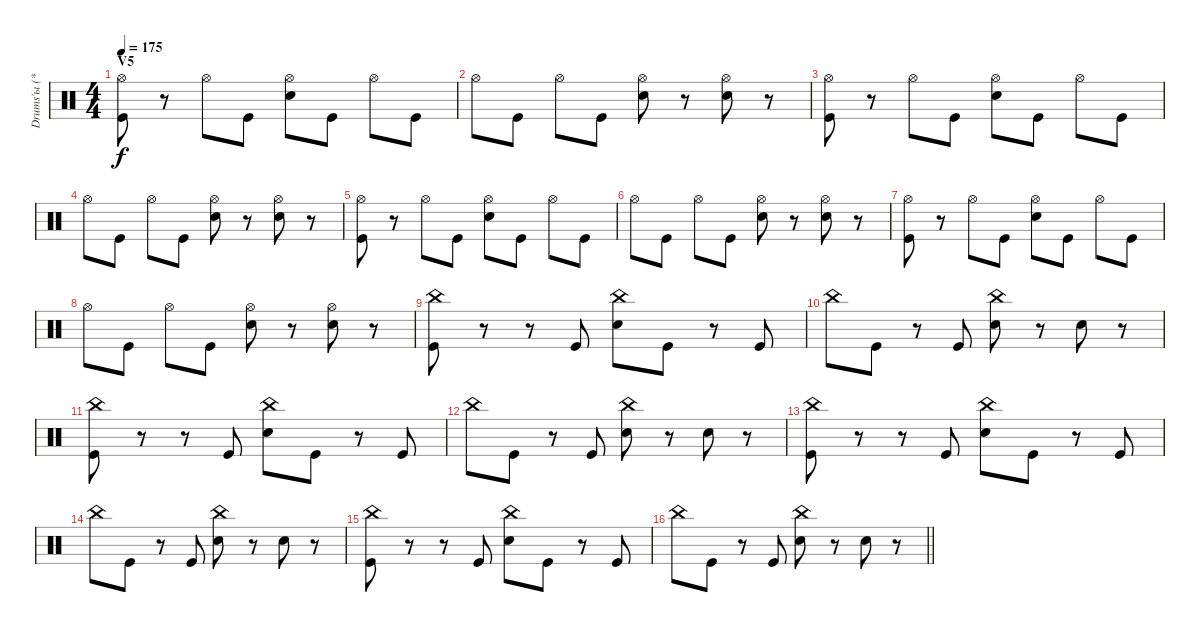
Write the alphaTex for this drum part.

\track ("Drums'ы (***)" "Drums'ы (*") {instrument percussion}
\staff {score}
\articulation defaults
\ts (4 4)
\section ("" "V5")
\tempo 175
\clef neutral
\ks c
("Hi-Hat (open)" "Kick (hit)").8{dy f} r.8 "Hi-Hat (open)".8 "Kick (hit)".8 ("Hi-Hat (open)" "Electric Snare (hit)").8 "Kick (hit)".8 "Hi-Hat (open)".8 "Kick (hit)".8 |
"Hi-Hat (open)".8 "Kick (hit)".8 "Hi-Hat (open)".8 "Kick (hit)".8 ("Hi-Hat (open)" "Electric Snare (hit)").8 r.8 ("Hi-Hat (open)" "Electric Snare (hit)").8 r.8 |
("Hi-Hat (open)" "Kick (hit)").8 r.8 "Hi-Hat (open)".8 "Kick (hit)".8 ("Hi-Hat (open)" "Electric Snare (hit)").8 "Kick (hit)".8 "Hi-Hat (open)".8 "Kick (hit)".8 |
"Hi-Hat (open)".8 "Kick (hit)".8 "Hi-Hat (open)".8 "Kick (hit)".8 ("Hi-Hat (open)" "Electric Snare (hit)").8 r.8 ("Hi-Hat (open)" "Electric Snare (hit)").8 r.8 |
("Hi-Hat (open)" "Kick (hit)").8 r.8 "Hi-Hat (open)".8 "Kick (hit)".8 ("Hi-Hat (open)" "Electric Snare (hit)").8 "Kick (hit)".8 "Hi-Hat (open)".8 "Kick (hit)".8 |
"Hi-Hat (open)".8 "Kick (hit)".8 "Hi-Hat (open)".8 "Kick (hit)".8 ("Hi-Hat (open)" "Electric Snare (hit)").8 r.8 ("Hi-Hat (open)" "Electric Snare (hit)").8 r.8 |
("Hi-Hat (open)" "Kick (hit)").8 r.8 "Hi-Hat (open)".8 "Kick (hit)".8 ("Hi-Hat (open)" "Electric Snare (hit)").8 "Kick (hit)".8 "Hi-Hat (open)".8 "Kick (hit)".8 |
"Hi-Hat (open)".8 "Kick (hit)".8 "Hi-Hat (open)".8 "Kick (hit)".8 ("Hi-Hat (open)" "Electric Snare (hit)").8 r.8 ("Hi-Hat (open)" "Electric Snare (hit)").8 r.8 |
("China (hit)" "Kick (hit)").8 r.8 r.8 "Kick (hit)".8 ("China (hit)" "Electric Snare (hit)").8 "Kick (hit)".8 r.8 "Kick (hit)".8 |
"China (hit)".8 "Kick (hit)".8 r.8 "Kick (hit)".8 ("China (hit)" "Electric Snare (hit)").8 r.8 "Electric Snare (hit)".8 r.8 |
("China (hit)" "Kick (hit)").8 r.8 r.8 "Kick (hit)".8 ("China (hit)" "Electric Snare (hit)").8 "Kick (hit)".8 r.8 "Kick (hit)".8 |
"China (hit)".8 "Kick (hit)".8 r.8 "Kick (hit)".8 ("China (hit)" "Electric Snare (hit)").8 r.8 "Electric Snare (hit)".8 r.8 |
("China (hit)" "Kick (hit)").8 r.8 r.8 "Kick (hit)".8 ("China (hit)" "Electric Snare (hit)").8 "Kick (hit)".8 r.8 "Kick (hit)".8 |
"China (hit)".8 "Kick (hit)".8 r.8 "Kick (hit)".8 ("China (hit)" "Electric Snare (hit)").8 r.8 "Electric Snare (hit)".8 r.8 |
("China (hit)" "Kick (hit)").8 r.8 r.8 "Kick (hit)".8 ("China (hit)" "Electric Snare (hit)").8 "Kick (hit)".8 r.8 "Kick (hit)".8 |
\barLineRight lightlight "China (hit)".8 "Kick (hit)".8
r.8 "Kick (hit)".8 ("China (hit)" "Electric Snare (hit)").8 r.8 "Electric Snare (hit)".8 r.8
